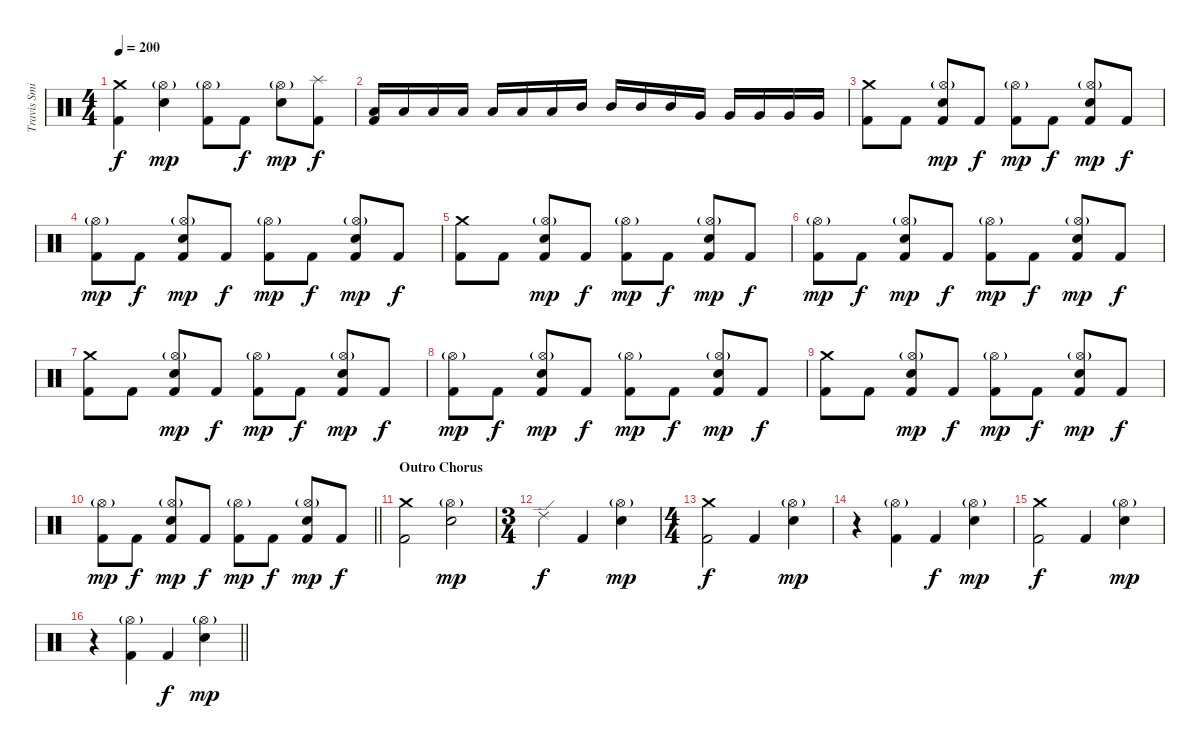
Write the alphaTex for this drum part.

\track ("Travis Smith" "Travis Smi") {instrument percussion}
\staff {score}
\articulation defaults
\ts (4 4)
\tempo 200
\clef neutral
\ks c
("Crash medium (hit)" "Kick (hit) 2").4{dy f} ("Hi-Hat (open)"{g} "Electric Snare (hit)").4{dy mp} ("Hi-Hat (open)"{g} "Kick (hit) 2").8 "Kick (hit) 2".8{dy f} ("Hi-Hat (open)"{g} "Electric Snare (hit)").8{dy mp} ("Splash (hit)" "Kick (hit) 2").8{dy f} |
("Low Tom (hit)" "Kick (hit) 2").16 "Low Tom (hit)".16 "Low Tom (hit)".16 "Low Tom (hit)".16 "Low Tom (hit)".16 "Low Tom (hit)".16 "Low Tom (hit)".16 "Mid Tom (hit)".16 "Mid Tom (hit)".16 "Mid Tom (hit)".16 "Mid Tom (hit)".16 "Very Low Tom (hit)".16 "Very Low Tom (hit)".16 "Very Low Tom (hit)".16 "Very Low Tom (hit)".16 "Very Low Tom (hit)".16 |
("Crash medium (hit)" "Kick (hit) 2").8 "Kick (hit) 2".8 ("Hi-Hat (open)"{g} "Electric Snare (hit)" "Kick (hit) 2").8{dy mp} "Kick (hit) 2".8{dy f} ("Hi-Hat (open)"{g} "Kick (hit) 2").8{dy mp} "Kick (hit) 2".8{dy f} ("Hi-Hat (open)"{g} "Electric Snare (hit)" "Kick (hit) 2").8{dy mp} "Kick (hit) 2".8{dy f} |
("Hi-Hat (open)"{g} "Kick (hit) 2").8{dy mp} "Kick (hit) 2".8{dy f} ("Hi-Hat (open)"{g} "Electric Snare (hit)" "Kick (hit) 2").8{dy mp} "Kick (hit) 2".8{dy f} ("Hi-Hat (open)"{g} "Kick (hit) 2").8{dy mp} "Kick (hit) 2".8{dy f} ("Hi-Hat (open)"{g} "Electric Snare (hit)" "Kick (hit) 2").8{dy mp} "Kick (hit) 2".8{dy f} |
("Crash medium (hit)" "Kick (hit) 2").8 "Kick (hit) 2".8 ("Hi-Hat (open)"{g} "Electric Snare (hit)" "Kick (hit) 2").8{dy mp} "Kick (hit) 2".8{dy f} ("Hi-Hat (open)"{g} "Kick (hit) 2").8{dy mp} "Kick (hit) 2".8{dy f} ("Hi-Hat (open)"{g} "Electric Snare (hit)" "Kick (hit) 2").8{dy mp} "Kick (hit) 2".8{dy f} |
("Hi-Hat (open)"{g} "Kick (hit) 2").8{dy mp} "Kick (hit) 2".8{dy f} ("Hi-Hat (open)"{g} "Electric Snare (hit)" "Kick (hit) 2").8{dy mp} "Kick (hit) 2".8{dy f} ("Hi-Hat (open)"{g} "Kick (hit) 2").8{dy mp} "Kick (hit) 2".8{dy f} ("Hi-Hat (open)"{g} "Electric Snare (hit)" "Kick (hit) 2").8{dy mp} "Kick (hit) 2".8{dy f} |
("Crash medium (hit)" "Kick (hit) 2").8 "Kick (hit) 2".8 ("Hi-Hat (open)"{g} "Electric Snare (hit)" "Kick (hit) 2").8{dy mp} "Kick (hit) 2".8{dy f} ("Hi-Hat (open)"{g} "Kick (hit) 2").8{dy mp} "Kick (hit) 2".8{dy f} ("Hi-Hat (open)"{g} "Electric Snare (hit)" "Kick (hit) 2").8{dy mp} "Kick (hit) 2".8{dy f} |
("Hi-Hat (open)"{g} "Kick (hit) 2").8{dy mp} "Kick (hit) 2".8{dy f} ("Hi-Hat (open)"{g} "Electric Snare (hit)" "Kick (hit) 2").8{dy mp} "Kick (hit) 2".8{dy f} ("Hi-Hat (open)"{g} "Kick (hit) 2").8{dy mp} "Kick (hit) 2".8{dy f} ("Hi-Hat (open)"{g} "Electric Snare (hit)" "Kick (hit) 2").8{dy mp} "Kick (hit) 2".8{dy f} |
("Crash medium (hit)" "Kick (hit) 2").8 "Kick (hit) 2".8 ("Hi-Hat (open)"{g} "Electric Snare (hit)" "Kick (hit) 2").8{dy mp} "Kick (hit) 2".8{dy f} ("Hi-Hat (open)"{g} "Kick (hit) 2").8{dy mp} "Kick (hit) 2".8{dy f} ("Hi-Hat (open)"{g} "Electric Snare (hit)" "Kick (hit) 2").8{dy mp} "Kick (hit) 2".8{dy f} |
\barLineRight lightlight
("Hi-Hat (open)"{g} "Kick (hit) 2").8{dy mp} "Kick (hit) 2".8{dy f} ("Hi-Hat (open)"{g} "Electric Snare (hit)" "Kick (hit) 2").8{dy mp} "Kick (hit) 2".8{dy f} ("Hi-Hat (open)"{g} "Kick (hit) 2").8{dy mp} "Kick (hit) 2".8{dy f} ("Hi-Hat (open)"{g} "Electric Snare (hit)" "Kick (hit) 2").8{dy mp} "Kick (hit) 2".8{dy f} |
\section ("" "Outro Chorus")
("Crash medium (hit)" "Kick (hit) 2").2 ("Hi-Hat (open)"{g} "Electric Snare (hit)").2{dy mp} |
\ts (3 4)
"Ride (edge) 2".4{dy f} "Kick (hit) 2".4 ("Hi-Hat (open)"{g} "Electric Snare (hit)").4{dy mp} |
\ts (4 4)
("Crash medium (hit)" "Kick (hit) 2").2{dy f} "Kick (hit) 2".4 ("Hi-Hat (open)"{g} "Electric Snare (hit)").4{dy mp} |
r.4 ("Hi-Hat (open)"{g} "Kick (hit) 2").4 "Kick (hit) 2".4{dy f} ("Hi-Hat (open)"{g} "Electric Snare (hit)").4{dy mp} |
("Crash medium (hit)" "Kick (hit) 2").2{dy f} "Kick (hit) 2".4 ("Hi-Hat (open)"{g} "Electric Snare (hit)").4{dy mp} |
\barLineRight lightlight
r.4 ("Hi-Hat (open)"{g} "Kick (hit) 2").4 "Kick (hit) 2".4{dy f} ("Hi-Hat (open)"{g} "Electric Snare (hit)").4{dy mp}
